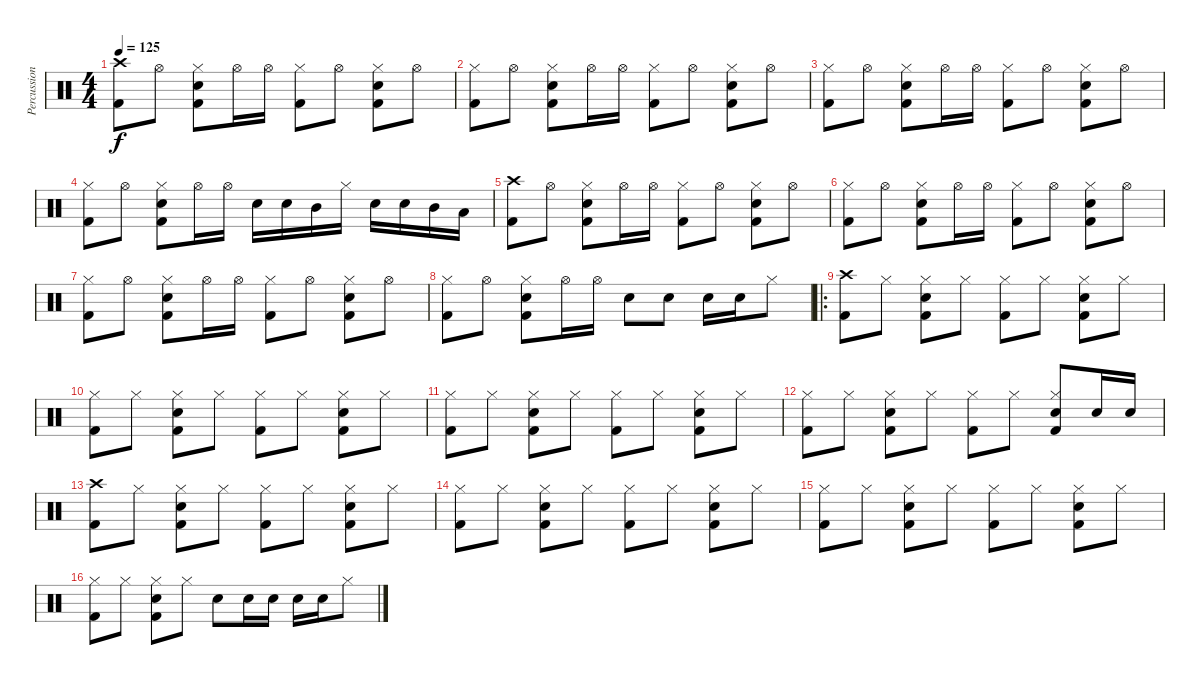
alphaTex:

\track ("Percussion" "Percussion") {instrument percussion}
\staff {score}
\articulation defaults
\ts (4 4)
\tempo 125
\clef neutral
\ks c
("Crash high (hit)" "Kick (hit) 2").8{dy f} "Hi-Hat (open)".8 ("Hi-Hat (closed)" "Electric Snare (hit)" "Kick (hit) 2").8 "Hi-Hat (open)".16 "Hi-Hat (open)".16 ("Hi-Hat (closed)" "Kick (hit) 2").8 "Hi-Hat (open)".8 ("Hi-Hat (closed)" "Electric Snare (hit)" "Kick (hit) 2").8 "Hi-Hat (open)".8 |
("Hi-Hat (closed)" "Kick (hit) 2").8 "Hi-Hat (open)".8 ("Hi-Hat (closed)" "Electric Snare (hit)" "Kick (hit) 2").8 "Hi-Hat (open)".16 "Hi-Hat (open)".16 ("Hi-Hat (closed)" "Kick (hit) 2").8 "Hi-Hat (open)".8 ("Hi-Hat (closed)" "Electric Snare (hit)" "Kick (hit) 2").8 "Hi-Hat (open)".8 |
("Hi-Hat (closed)" "Kick (hit) 2").8 "Hi-Hat (open)".8 ("Hi-Hat (closed)" "Electric Snare (hit)" "Kick (hit) 2").8 "Hi-Hat (open)".16 "Hi-Hat (open)".16 ("Hi-Hat (closed)" "Kick (hit) 2").8 "Hi-Hat (open)".8 ("Hi-Hat (closed)" "Electric Snare (hit)" "Kick (hit) 2").8 "Hi-Hat (open)".8 |
("Hi-Hat (closed)" "Kick (hit) 2").8 "Hi-Hat (open)".8 ("Hi-Hat (closed)" "Electric Snare (hit)" "Kick (hit) 2").8 "Hi-Hat (open)".16 "Hi-Hat (open)".16 "Electric Snare (hit)".16 "Electric Snare (hit)".16 "Mid Tom (hit)".16 "Hi-Hat (closed)".16 "Electric Snare (hit)".16 "Electric Snare (hit)".16 "Mid Tom (hit)".16 "Low Tom (hit)".16 |
("Crash high (hit)" "Kick (hit) 2").8 "Hi-Hat (open)".8 ("Hi-Hat (closed)" "Electric Snare (hit)" "Kick (hit) 2").8 "Hi-Hat (open)".16 "Hi-Hat (open)".16 ("Hi-Hat (closed)" "Kick (hit) 2").8 "Hi-Hat (open)".8 ("Hi-Hat (closed)" "Electric Snare (hit)" "Kick (hit) 2").8 "Hi-Hat (open)".8 |
("Hi-Hat (closed)" "Kick (hit) 2").8 "Hi-Hat (open)".8 ("Hi-Hat (closed)" "Electric Snare (hit)" "Kick (hit) 2").8 "Hi-Hat (open)".16 "Hi-Hat (open)".16 ("Hi-Hat (closed)" "Kick (hit) 2").8 "Hi-Hat (open)".8 ("Hi-Hat (closed)" "Electric Snare (hit)" "Kick (hit) 2").8 "Hi-Hat (open)".8 |
("Hi-Hat (closed)" "Kick (hit) 2").8 "Hi-Hat (open)".8 ("Hi-Hat (closed)" "Electric Snare (hit)" "Kick (hit) 2").8 "Hi-Hat (open)".16 "Hi-Hat (open)".16 ("Hi-Hat (closed)" "Kick (hit) 2").8 "Hi-Hat (open)".8 ("Hi-Hat (closed)" "Electric Snare (hit)" "Kick (hit) 2").8 "Hi-Hat (open)".8 |
("Hi-Hat (closed)" "Kick (hit) 2").8 "Hi-Hat (open)".8 ("Hi-Hat (closed)" "Electric Snare (hit)" "Kick (hit) 2").8 "Hi-Hat (open)".16 "Hi-Hat (open)".16 "Electric Snare (hit)".8 "Electric Snare (hit)".8 "Electric Snare (hit)".16 "Electric Snare (hit)".16 "Hi-Hat (closed)".8 |
\ro
("Crash high (hit)" "Kick (hit) 2").8 "Hi-Hat (closed)".8 ("Hi-Hat (closed)" "Electric Snare (hit)" "Kick (hit) 2").8 "Hi-Hat (closed)".8 ("Hi-Hat (closed)" "Kick (hit) 2").8 "Hi-Hat (closed)".8 ("Hi-Hat (closed)" "Electric Snare (hit)" "Kick (hit) 2").8 "Hi-Hat (closed)".8 |
("Hi-Hat (closed)" "Kick (hit) 2").8 "Hi-Hat (closed)".8 ("Hi-Hat (closed)" "Electric Snare (hit)" "Kick (hit) 2").8 "Hi-Hat (closed)".8 ("Hi-Hat (closed)" "Kick (hit) 2").8 "Hi-Hat (closed)".8 ("Hi-Hat (closed)" "Electric Snare (hit)" "Kick (hit) 2").8 "Hi-Hat (closed)".8 |
("Hi-Hat (closed)" "Kick (hit) 2").8 "Hi-Hat (closed)".8 ("Hi-Hat (closed)" "Electric Snare (hit)" "Kick (hit) 2").8 "Hi-Hat (closed)".8 ("Hi-Hat (closed)" "Kick (hit) 2").8 "Hi-Hat (closed)".8 ("Hi-Hat (closed)" "Electric Snare (hit)" "Kick (hit) 2").8 "Hi-Hat (closed)".8 |
("Hi-Hat (closed)" "Kick (hit) 2").8 "Hi-Hat (closed)".8 ("Hi-Hat (closed)" "Electric Snare (hit)" "Kick (hit) 2").8 "Hi-Hat (closed)".8 ("Hi-Hat (closed)" "Kick (hit) 2").8 "Hi-Hat (closed)".8 ("Hi-Hat (closed)" "Electric Snare (hit)" "Kick (hit) 2").8 "Electric Snare (hit)".16 "Electric Snare (hit)".16 |
("Crash high (hit)" "Kick (hit) 2").8 "Hi-Hat (closed)".8 ("Hi-Hat (closed)" "Electric Snare (hit)" "Kick (hit) 2").8 "Hi-Hat (closed)".8 ("Hi-Hat (closed)" "Kick (hit) 2").8 "Hi-Hat (closed)".8 ("Hi-Hat (closed)" "Electric Snare (hit)" "Kick (hit) 2").8 "Hi-Hat (closed)".8 |
("Hi-Hat (closed)" "Kick (hit) 2").8 "Hi-Hat (closed)".8 ("Hi-Hat (closed)" "Electric Snare (hit)" "Kick (hit) 2").8 "Hi-Hat (closed)".8 ("Hi-Hat (closed)" "Kick (hit) 2").8 "Hi-Hat (closed)".8 ("Hi-Hat (closed)" "Electric Snare (hit)" "Kick (hit) 2").8 "Hi-Hat (closed)".8 |
("Hi-Hat (closed)" "Kick (hit) 2").8 "Hi-Hat (closed)".8 ("Hi-Hat (closed)" "Electric Snare (hit)" "Kick (hit) 2").8 "Hi-Hat (closed)".8 ("Hi-Hat (closed)" "Kick (hit) 2").8 "Hi-Hat (closed)".8 ("Hi-Hat (closed)" "Electric Snare (hit)" "Kick (hit) 2").8 "Hi-Hat (closed)".8 |
("Hi-Hat (closed)" "Kick (hit) 2").8 "Hi-Hat (closed)".8 ("Hi-Hat (closed)" "Electric Snare (hit)" "Kick (hit) 2").8 "Hi-Hat (closed)".8 "Electric Snare (hit)".8 "Electric Snare (hit)".16 "Electric Snare (hit)".16 "Electric Snare (hit)".16 "Electric Snare (hit)".16 "Hi-Hat (closed)".8
